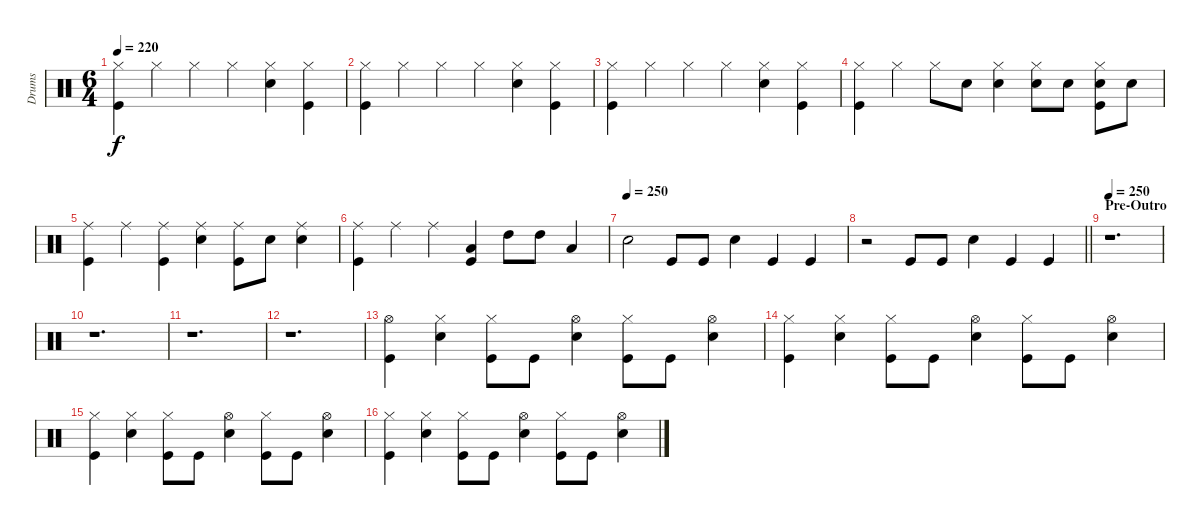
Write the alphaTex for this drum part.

\track ("Drums" "Drums") {instrument percussion}
\staff {score}
\articulation defaults
\ts (6 4)
\tempo 220
\clef neutral
\ks c
("Hi-Hat (closed)" "Kick (hit)").4{dy f} "Hi-Hat (closed)".4 "Hi-Hat (closed)".4 "Hi-Hat (closed)".4 ("Hi-Hat (closed)" "Snare (hit) 2").4 ("Hi-Hat (closed)" "Kick (hit)").4 |
("Hi-Hat (closed)" "Kick (hit)").4 "Hi-Hat (closed)".4 "Hi-Hat (closed)".4 "Hi-Hat (closed)".4 ("Hi-Hat (closed)" "Snare (hit) 2").4 ("Hi-Hat (closed)" "Kick (hit)").4 |
("Hi-Hat (closed)" "Kick (hit)").4 "Hi-Hat (closed)".4 "Hi-Hat (closed)".4 "Hi-Hat (closed)".4 ("Hi-Hat (closed)" "Snare (hit) 2").4 ("Hi-Hat (closed)" "Kick (hit)").4 |
("Hi-Hat (closed)" "Kick (hit)").4 "Hi-Hat (closed)".4 "Hi-Hat (closed)".8 "Snare (hit) 2".8 ("Hi-Hat (closed)" "Snare (hit) 2").4 ("Hi-Hat (closed)" "Snare (hit) 2").8 "Snare (hit) 2".8 ("Hi-Hat (closed)" "Snare (hit) 2" "Kick (hit)").8 "Snare (hit) 2".8 |
("Ride (middle)" "Kick (hit)").4 "Ride (middle)".4 ("Ride (middle)" "Kick (hit)").4 ("Ride (middle)" "Snare (hit) 2").4 ("Ride (middle)" "Kick (hit)").8 "Snare (hit) 2".8 ("Ride (middle)" "Snare (hit) 2").4 |
("Ride (middle)" "Kick (hit)").4 "Ride (middle)".4 "Ride (middle)".4 ("Low Tom (hit)" "Kick (hit)").4 "High Tom (hit)".8 "High Tom (hit)".8 "Low Floor Tom (hit)".4 |
\tempo (250)
"Snare (hit) 2".2 "Kick (hit)".8 "Kick (hit)".8 "Snare (hit) 2".4 "Kick (hit)".4 "Kick (hit)".4 |
\barLineRight lightlight
r.2 "Kick (hit)".8 "Kick (hit)".8 "Snare (hit) 2".4 "Kick (hit)".4 "Kick (hit)".4 |
\section ("" "Pre-Outro")
\tempo 250
r.1{d} |
r.1{d} |
r.1{d} |
r.1{d} |
("Hi-Hat (open)" "Kick (hit)").4 ("Hi-Hat (closed)" "Snare (hit) 2").4 ("Hi-Hat (closed)" "Kick (hit)").8 "Kick (hit)".8 ("Hi-Hat (open)" "Snare (hit) 2").4 ("Hi-Hat (closed)" "Kick (hit)").8 "Kick (hit)".8 ("Hi-Hat (open)" "Snare (hit) 2").4 |
("Hi-Hat (closed)" "Kick (hit)").4 ("Hi-Hat (closed)" "Snare (hit) 2").4 ("Hi-Hat (closed)" "Kick (hit)").8 "Kick (hit)".8 ("Hi-Hat (open)" "Snare (hit) 2").4 ("Hi-Hat (closed)" "Kick (hit)").8 "Kick (hit)".8 ("Hi-Hat (open)" "Snare (hit) 2").4 |
("Hi-Hat (closed)" "Kick (hit)").4 ("Hi-Hat (closed)" "Snare (hit) 2").4 ("Hi-Hat (closed)" "Kick (hit)").8 "Kick (hit)".8 ("Hi-Hat (open)" "Snare (hit) 2").4 ("Hi-Hat (closed)" "Kick (hit)").8 "Kick (hit)".8 ("Hi-Hat (open)" "Snare (hit) 2").4 |
("Hi-Hat (closed)" "Kick (hit)").4 ("Hi-Hat (closed)" "Snare (hit) 2").4 ("Hi-Hat (closed)" "Kick (hit)").8 "Kick (hit)".8 ("Hi-Hat (open)" "Snare (hit) 2").4 ("Hi-Hat (closed)" "Kick (hit)").8 "Kick (hit)".8 ("Hi-Hat (open)" "Snare (hit) 2").4
